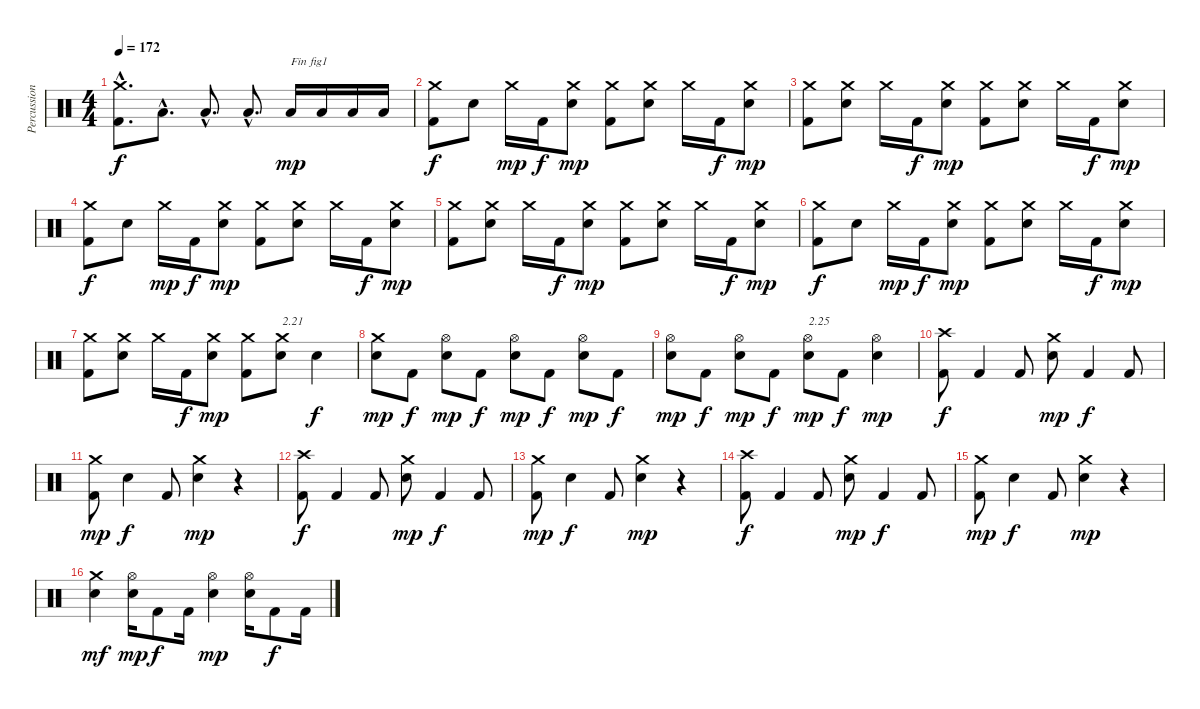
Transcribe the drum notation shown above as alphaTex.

\track ("Percussions" "Percussion") {instrument percussion}
\staff {score}
\articulation defaults
\ts (4 4)
\tempo 172
\clef neutral
\ks c
("Kick (hit) 2"{hac} "Crash medium (hit)"{hac}).8{d dy f} "Low Floor Tom (hit)"{hac}.8{d} "Low Floor Tom (hit)"{hac}.8{d} "Low Floor Tom (hit)"{hac}.8{d} "Low Floor Tom (hit)".16{txt "Fin fig1" dy mp} "Low Floor Tom (hit)".16 "Low Floor Tom (hit)".16 "Low Floor Tom (hit)".16 |
("Kick (hit) 2" "Crash medium (hit)").8{dy f} "Electric Snare (hit)".8 "Crash medium (hit)".16{dy mp} "Kick (hit) 2".16{dy f} ("Electric Snare (hit)" "Crash medium (hit)").8{dy mp} ("Kick (hit) 2" "Crash medium (hit)").8 ("Electric Snare (hit)" "Crash medium (hit)").8 "Crash medium (hit)".16 "Kick (hit) 2".16{dy f} ("Electric Snare (hit)" "Crash medium (hit)").8{dy mp} |
("Kick (hit) 2" "Crash medium (hit)").8 ("Electric Snare (hit)" "Crash medium (hit)").8 "Crash medium (hit)".16 "Kick (hit) 2".16{dy f} ("Electric Snare (hit)" "Crash medium (hit)").8{dy mp} ("Kick (hit) 2" "Crash medium (hit)").8 ("Electric Snare (hit)" "Crash medium (hit)").8 "Crash medium (hit)".16 "Kick (hit) 2".16{dy f} ("Electric Snare (hit)" "Crash medium (hit)").8{dy mp} |
("Kick (hit) 2" "Crash medium (hit)").8{dy f} "Electric Snare (hit)".8 "Crash medium (hit)".16{dy mp} "Kick (hit) 2".16{dy f} ("Electric Snare (hit)" "Crash medium (hit)").8{dy mp} ("Kick (hit) 2" "Crash medium (hit)").8 ("Electric Snare (hit)" "Crash medium (hit)").8 "Crash medium (hit)".16 "Kick (hit) 2".16{dy f} ("Electric Snare (hit)" "Crash medium (hit)").8{dy mp} |
("Kick (hit) 2" "Crash medium (hit)").8 ("Electric Snare (hit)" "Crash medium (hit)").8 "Crash medium (hit)".16 "Kick (hit) 2".16{dy f} ("Electric Snare (hit)" "Crash medium (hit)").8{dy mp} ("Kick (hit) 2" "Crash medium (hit)").8 ("Electric Snare (hit)" "Crash medium (hit)").8 "Crash medium (hit)".16 "Kick (hit) 2".16{dy f} ("Electric Snare (hit)" "Crash medium (hit)").8{dy mp} |
("Kick (hit) 2" "Crash medium (hit)").8{dy f} "Electric Snare (hit)".8 "Crash medium (hit)".16{dy mp} "Kick (hit) 2".16{dy f} ("Electric Snare (hit)" "Crash medium (hit)").8{dy mp} ("Kick (hit) 2" "Crash medium (hit)").8 ("Electric Snare (hit)" "Crash medium (hit)").8 "Crash medium (hit)".16 "Kick (hit) 2".16{dy f} ("Electric Snare (hit)" "Crash medium (hit)").8{dy mp} |
("Kick (hit) 2" "Crash medium (hit)").8 ("Electric Snare (hit)" "Crash medium (hit)").8 "Crash medium (hit)".16 "Kick (hit) 2".16{dy f} ("Electric Snare (hit)" "Crash medium (hit)").8{dy mp} ("Kick (hit) 2" "Crash medium (hit)").8 ("Electric Snare (hit)" "Crash medium (hit)").8{txt "2.21"} "Electric Snare (hit)".4{dy f} |
("Electric Snare (hit)" "Crash medium (hit)").8{dy mp} "Kick (hit) 2".8{dy f} ("Electric Snare (hit)" "Hi-Hat (open)").8{dy mp} "Kick (hit) 2".8{dy f} ("Electric Snare (hit)" "Hi-Hat (open)").8{dy mp} "Kick (hit) 2".8{dy f} ("Electric Snare (hit)" "Hi-Hat (open)").8{dy mp} "Kick (hit) 2".8{dy f} |
("Electric Snare (hit)" "Hi-Hat (open)").8{dy mp} "Kick (hit) 2".8{dy f} ("Electric Snare (hit)" "Hi-Hat (open)").8{dy mp} "Kick (hit) 2".8{dy f} ("Electric Snare (hit)" "Hi-Hat (open)").8{txt "2.25" dy mp} "Kick (hit) 2".8{dy f} ("Electric Snare (hit)" "Hi-Hat (open)").4{dy mp} |
("Kick (hit) 2" "Crash high (hit)").8{dy f} "Kick (hit) 2".4 "Kick (hit) 2".8 ("Electric Snare (hit)" "Crash medium (hit)").8{dy mp} "Kick (hit) 2".4{dy f} "Kick (hit) 2".8 |
("Kick (hit) 2" "Crash medium (hit)").8{dy mp} "Electric Snare (hit)".4{dy f} "Kick (hit) 2".8 ("Electric Snare (hit)" "Crash medium (hit)").4{dy mp} r.4 |
("Kick (hit) 2" "Crash high (hit)").8{dy f} "Kick (hit) 2".4 "Kick (hit) 2".8 ("Electric Snare (hit)" "Crash medium (hit)").8{dy mp} "Kick (hit) 2".4{dy f} "Kick (hit) 2".8 |
("Kick (hit) 2" "Crash medium (hit)").8{dy mp} "Electric Snare (hit)".4{dy f} "Kick (hit) 2".8 ("Electric Snare (hit)" "Crash medium (hit)").4{dy mp} r.4 |
("Kick (hit) 2" "Crash high (hit)").8{dy f} "Kick (hit) 2".4 "Kick (hit) 2".8 ("Electric Snare (hit)" "Crash medium (hit)").8{dy mp} "Kick (hit) 2".4{dy f} "Kick (hit) 2".8 |
("Kick (hit) 2" "Crash medium (hit)").8{dy mp} "Electric Snare (hit)".4{dy f} "Kick (hit) 2".8 ("Electric Snare (hit)" "Crash medium (hit)").4{dy mp} r.4 |
("Electric Snare (hit)" "Crash medium (hit)").4{dy mf} ("Electric Snare (hit)" "Hi-Hat (open)").16{dy mp} "Kick (hit) 2".8{dy f} "Kick (hit) 2".16 ("Electric Snare (hit)" "Hi-Hat (open)").4{dy mp} ("Electric Snare (hit)" "Hi-Hat (open)").16 "Kick (hit) 2".8{dy f} "Kick (hit) 2".16
